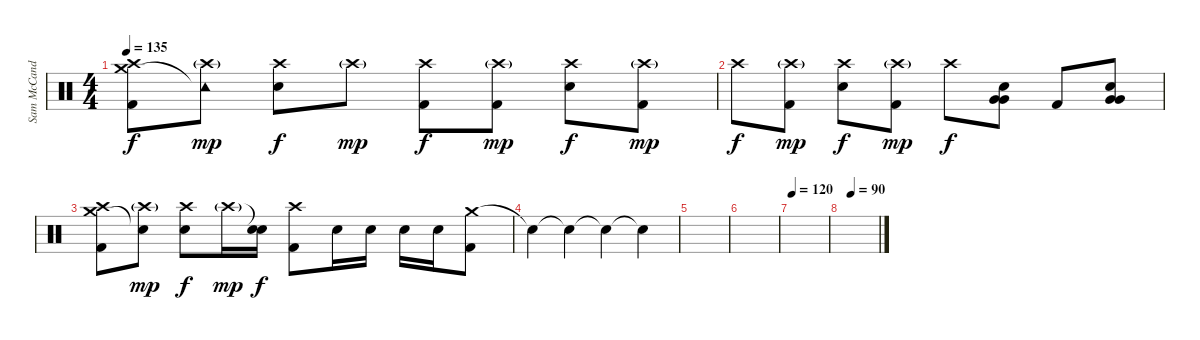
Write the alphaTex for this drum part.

\track ("Sam McCandless (Drums)" "Sam McCand") {instrument percussion}
\staff {score}
\articulation defaults
\ts (4 4)
\tempo 135
\clef neutral
\ks c
("Crash high (hit)" "Crash medium (hit)" "Kick (hit) 2").8{dy f} ("Crash high (hit)"{g} "Tambourine (hit)"{t}).8{dy mp} ("Crash high (hit)" "Electric Snare (hit)").8{dy f} "Crash high (hit)"{g}.8{dy mp} ("Crash high (hit)" "Kick (hit) 2").8{dy f} ("Crash high (hit)"{g} "Kick (hit) 2").8{dy mp} ("Crash high (hit)" "Electric Snare (hit)").8{dy f} ("Crash high (hit)"{g} "Kick (hit) 2").8{dy mp} |
"Crash high (hit)".8{dy f} ("Crash high (hit)"{g} "Kick (hit) 2").8{dy mp} ("Crash high (hit)" "Electric Snare (hit)").8{dy f} ("Crash high (hit)"{g} "Kick (hit) 2").8{dy mp} "Crash high (hit)".8{dy f} ("Electric Snare (hit)" "Very Low Tom (hit)" "Very Low Tom (hit)").8 "Kick (hit) 2".8 ("Electric Snare (hit)" "Very Low Tom (hit)" "Very Low Tom (hit)").8 |
("Crash high (hit)" "Crash medium (hit)" "Kick (hit) 2").8 ("Crash high (hit)"{g} "Snare (hit)"{t}).8{dy mp} ("Crash high (hit)" "Electric Snare (hit)").8{dy f} "Crash high (hit)"{g}.16{dy mp} ("Snare (hit)"{t} "Electric Snare (hit)").16{dy f} ("Crash high (hit)" "Kick (hit) 2").8 "Electric Snare (hit)".16 "Electric Snare (hit)".16 "Electric Snare (hit)".16 "Electric Snare (hit)".16 ("Crash medium (hit)" "Kick (hit) 2").8 |
"Snare (hit)"{t}.4 "Snare (hit)"{t}.4 "Snare (hit)"{t}.4 "Snare (hit)"{t}.4 |
|
|
\tempo 120
|
\tempo (90 0.25)
